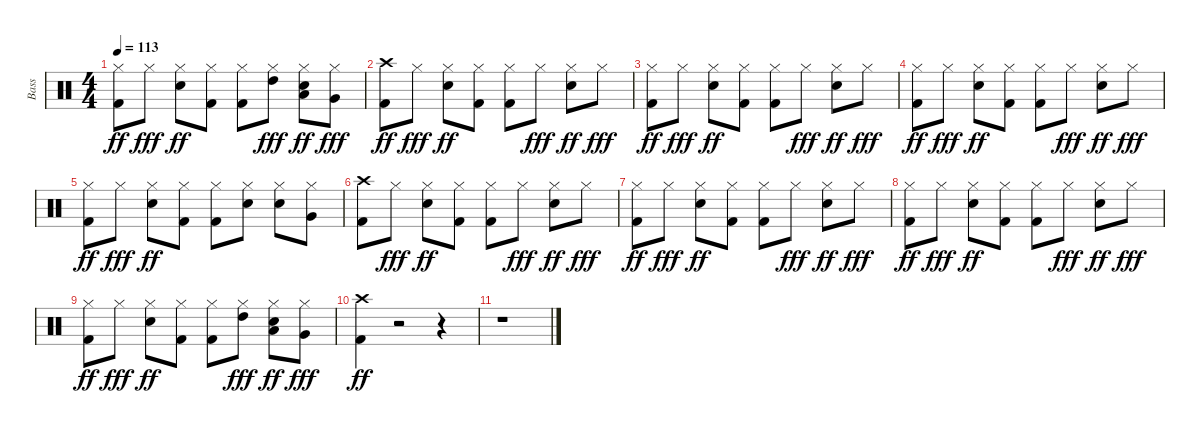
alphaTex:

\track (" Bass" " Bass") {instrument percussion}
\staff {score}
\articulation defaults
\ts (4 4)
\tempo 113
\clef neutral
\ks c
("Hi-Hat (closed)" "Kick (hit) 2").8{dy ff} "Hi-Hat (closed)".8{dy fff} ("Hi-Hat (closed)" "Snare (hit) 2").8{dy ff} ("Hi-Hat (closed)" "Kick (hit) 2").8 ("Hi-Hat (closed)" "Kick (hit) 2").8 ("Hi-Hat (closed)" "High Tom (hit)").8{dy fff} ("Hi-Hat (closed)" "Low Tom (hit)" "Snare (hit) 2").8{dy ff} ("Hi-Hat (closed)" "Very Low Tom (hit)").8{dy fff} |
("Crash high (hit)" "Kick (hit) 2").8{dy ff} "Hi-Hat (closed)".8{dy fff} ("Hi-Hat (closed)" "Snare (hit) 2").8{dy ff} ("Hi-Hat (closed)" "Kick (hit) 2").8 ("Hi-Hat (closed)" "Kick (hit) 2").8 "Hi-Hat (closed)".8{dy fff} ("Hi-Hat (closed)" "Snare (hit) 2").8{dy ff} "Hi-Hat (closed)".8{dy fff} |
("Hi-Hat (closed)" "Kick (hit) 2").8{dy ff} "Hi-Hat (closed)".8{dy fff} ("Hi-Hat (closed)" "Snare (hit) 2").8{dy ff} ("Hi-Hat (closed)" "Kick (hit) 2").8 ("Hi-Hat (closed)" "Kick (hit) 2").8 "Hi-Hat (closed)".8{dy fff} ("Hi-Hat (closed)" "Snare (hit) 2").8{dy ff} "Hi-Hat (closed)".8{dy fff} |
("Hi-Hat (closed)" "Kick (hit) 2").8{dy ff} "Hi-Hat (closed)".8{dy fff} ("Hi-Hat (closed)" "Snare (hit) 2").8{dy ff} ("Hi-Hat (closed)" "Kick (hit) 2").8 ("Hi-Hat (closed)" "Kick (hit) 2").8 "Hi-Hat (closed)".8{dy fff} ("Hi-Hat (closed)" "Snare (hit) 2").8{dy ff} "Hi-Hat (closed)".8{dy fff} |
("Hi-Hat (closed)" "Kick (hit) 2").8{dy ff} "Hi-Hat (closed)".8{dy fff} ("Hi-Hat (closed)" "Snare (hit) 2").8{dy ff} ("Hi-Hat (closed)" "Kick (hit) 2").8 ("Hi-Hat (closed)" "Kick (hit) 2").8 ("Hi-Hat (closed)" "Snare (hit) 2").8 ("Hi-Hat (closed)" "Snare (hit) 2").8 ("Hi-Hat (closed)" "Very Low Tom (hit)").8 |
("Crash high (hit)" "Kick (hit) 2").8 "Hi-Hat (closed)".8{dy fff} ("Hi-Hat (closed)" "Snare (hit) 2").8{dy ff} ("Hi-Hat (closed)" "Kick (hit) 2").8 ("Hi-Hat (closed)" "Kick (hit) 2").8 "Hi-Hat (closed)".8{dy fff} ("Hi-Hat (closed)" "Snare (hit) 2").8{dy ff} "Hi-Hat (closed)".8{dy fff} |
("Hi-Hat (closed)" "Kick (hit) 2").8{dy ff} "Hi-Hat (closed)".8{dy fff} ("Hi-Hat (closed)" "Snare (hit) 2").8{dy ff} ("Hi-Hat (closed)" "Kick (hit) 2").8 ("Hi-Hat (closed)" "Kick (hit) 2").8 "Hi-Hat (closed)".8{dy fff} ("Hi-Hat (closed)" "Snare (hit) 2").8{dy ff} "Hi-Hat (closed)".8{dy fff} |
("Hi-Hat (closed)" "Kick (hit) 2").8{dy ff} "Hi-Hat (closed)".8{dy fff} ("Hi-Hat (closed)" "Snare (hit) 2").8{dy ff} ("Hi-Hat (closed)" "Kick (hit) 2").8 ("Hi-Hat (closed)" "Kick (hit) 2").8 "Hi-Hat (closed)".8{dy fff} ("Hi-Hat (closed)" "Snare (hit) 2").8{dy ff} "Hi-Hat (closed)".8{dy fff} |
("Hi-Hat (closed)" "Kick (hit) 2").8{dy ff} "Hi-Hat (closed)".8{dy fff} ("Hi-Hat (closed)" "Snare (hit) 2").8{dy ff} ("Hi-Hat (closed)" "Kick (hit) 2").8 ("Hi-Hat (closed)" "Kick (hit) 2").8 ("Hi-Hat (closed)" "High Tom (hit)").8{dy fff} ("Hi-Hat (closed)" "Low Tom (hit)" "Snare (hit) 2").8{dy ff} ("Hi-Hat (closed)" "Very Low Tom (hit)").8{dy fff} |
("Kick (hit) 2" "Crash high (hit)").4{dy ff} r.2 r.4 |
r.1
